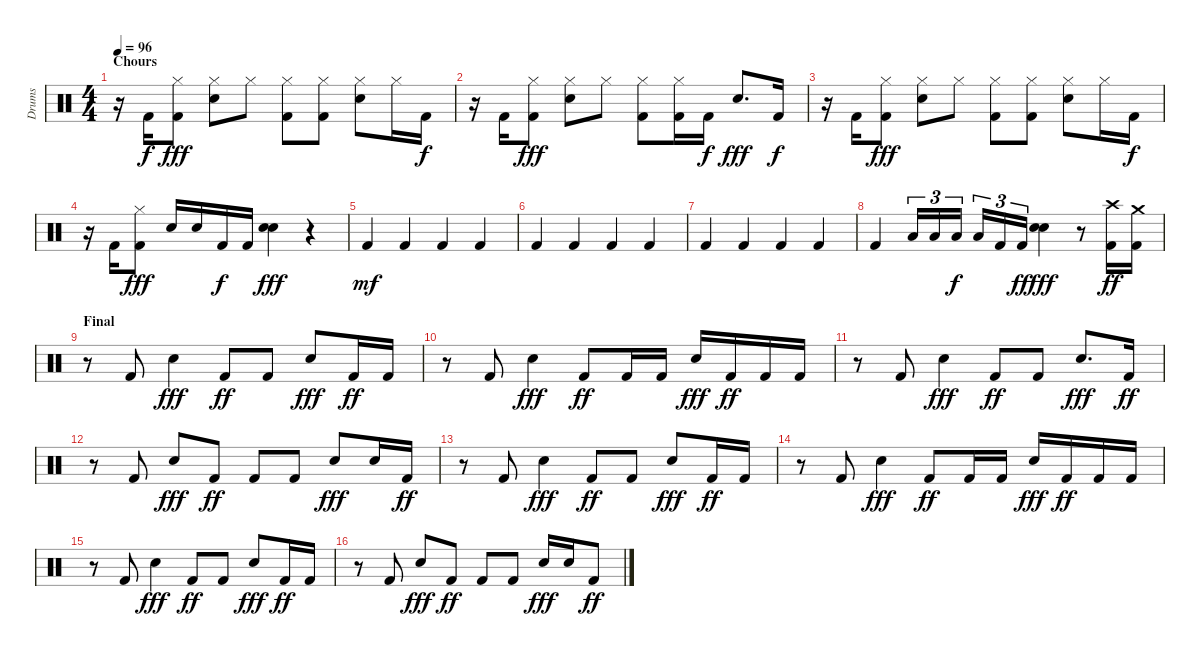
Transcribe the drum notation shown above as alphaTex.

\track ("Drums" "Drums") {instrument percussion}
\staff {score}
\articulation defaults
\ts (4 4)
\section ("" "Chours")
\tempo 96
\clef neutral
\ks c
r.16{dy ff} "Kick (hit) 2".16{dy f} ("Hi-Hat (closed)" "Kick (hit) 2").8{dy fff} ("Snare (hit) 2" "Hi-Hat (closed)").8 "Hi-Hat (closed)".8 ("Hi-Hat (closed)" "Kick (hit) 2").8 ("Hi-Hat (closed)" "Kick (hit) 2").8 ("Snare (hit) 2" "Hi-Hat (closed)").8 "Hi-Hat (closed)".16 "Kick (hit) 2".16{dy f} |
r.16 "Kick (hit) 2".16 ("Hi-Hat (closed)" "Kick (hit) 2").8{dy fff} ("Snare (hit) 2" "Hi-Hat (closed)").8 "Hi-Hat (closed)".8 ("Hi-Hat (closed)" "Kick (hit) 2").8 ("Hi-Hat (closed)" "Kick (hit) 2").16 "Kick (hit) 2".16{dy f} "Snare (hit) 2".8{d dy fff} "Kick (hit) 2".16{dy f} |
r.16 "Kick (hit) 2".16 ("Hi-Hat (closed)" "Kick (hit) 2").8{dy fff} ("Snare (hit) 2" "Hi-Hat (closed)").8 "Hi-Hat (closed)".8 ("Hi-Hat (closed)" "Kick (hit) 2").8 ("Hi-Hat (closed)" "Kick (hit) 2").8 ("Snare (hit) 2" "Hi-Hat (closed)").8 "Hi-Hat (closed)".16 "Kick (hit) 2".16{dy f} |
r.16 "Kick (hit) 2".16 ("Hi-Hat (closed)" "Kick (hit) 2").8{dy fff} "Snare (hit) 2".16 "Snare (hit) 2".16 "Kick (hit) 2".16{dy f} "Kick (hit) 2".16 ("Snare (hit) 2" "Snare (hit) 2").4{dy fff} r.4 |
"Kick (hit) 2".4{dy mf} "Kick (hit) 2".4 "Kick (hit) 2".4 "Kick (hit) 2".4 |
"Kick (hit) 2".4 "Kick (hit) 2".4 "Kick (hit) 2".4 "Kick (hit) 2".4 |
"Kick (hit) 2".4 "Kick (hit) 2".4 "Kick (hit) 2".4 "Kick (hit) 2".4 |
"Kick (hit) 2".4 "Low Tom (hit)".16{tu (3 2)} "Low Tom (hit)".16{tu (3 2)} "Low Tom (hit)".16{tu (3 2) dy f} "Low Floor Tom (hit)".16{tu (3 2)} "Kick (hit) 2".16{tu (3 2)} "Kick (hit) 2".16{tu (3 2) dy ff} ("Snare (hit) 2" "Snare (hit) 2").4{dy fff} r.8 ("Crash high (hit)" "Kick (hit) 2").16{dy ff} ("Crash medium (hit)" "Kick (hit) 2").16 |
\section ("" "Final")
r.8 "Kick (hit) 2".8 "Snare (hit) 2".4{dy fff} "Kick (hit) 2".8{dy ff} "Kick (hit) 2".8 "Snare (hit) 2".8{dy fff} "Kick (hit) 2".16{dy ff} "Kick (hit) 2".16 |
r.8 "Kick (hit) 2".8 "Snare (hit) 2".4{dy fff} "Kick (hit) 2".8{dy ff} "Kick (hit) 2".16 "Kick (hit) 2".16 "Snare (hit) 2".16{dy fff} "Kick (hit) 2".16{dy ff} "Kick (hit) 2".16 "Kick (hit) 2".16 |
r.8 "Kick (hit) 2".8 "Snare (hit) 2".4{dy fff} "Kick (hit) 2".8{dy ff} "Kick (hit) 2".8 "Snare (hit) 2".8{d dy fff} "Kick (hit) 2".16{dy ff} |
r.8 "Kick (hit) 2".8 "Snare (hit) 2".8{dy fff} "Kick (hit) 2".8{dy ff} "Kick (hit) 2".8 "Kick (hit) 2".8 "Snare (hit) 2".8{dy fff} "Snare (hit) 2".16 "Kick (hit) 2".16{dy ff} |
r.8 "Kick (hit) 2".8 "Snare (hit) 2".4{dy fff} "Kick (hit) 2".8{dy ff} "Kick (hit) 2".8 "Snare (hit) 2".8{dy fff} "Kick (hit) 2".16{dy ff} "Kick (hit) 2".16 |
r.8 "Kick (hit) 2".8 "Snare (hit) 2".4{dy fff} "Kick (hit) 2".8{dy ff} "Kick (hit) 2".16 "Kick (hit) 2".16 "Snare (hit) 2".16{dy fff} "Kick (hit) 2".16{dy ff} "Kick (hit) 2".16 "Kick (hit) 2".16 |
r.8 "Kick (hit) 2".8 "Snare (hit) 2".4{dy fff} "Kick (hit) 2".8{dy ff} "Kick (hit) 2".8 "Snare (hit) 2".8{dy fff} "Kick (hit) 2".16{dy ff} "Kick (hit) 2".16 |
r.8 "Kick (hit) 2".8 "Snare (hit) 2".8{dy fff} "Kick (hit) 2".8{dy ff} "Kick (hit) 2".8 "Kick (hit) 2".8 "Snare (hit) 2".16{dy fff} "Snare (hit) 2".16 "Kick (hit) 2".8{dy ff}
